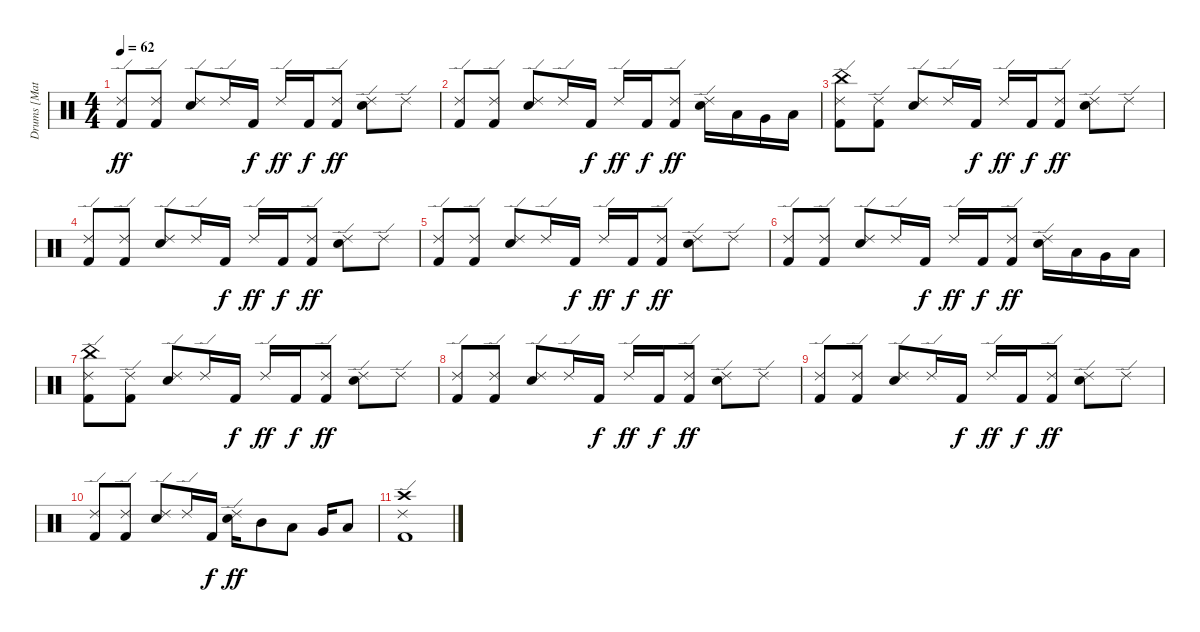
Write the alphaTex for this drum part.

\track ("Drums [Matt]" "Drums [Mat") {instrument percussion}
\staff {score}
\articulation defaults
\ts (4 4)
\tempo 62
\clef neutral
\ks c
("Ride (edge) 2" "Kick (hit) 2").8{dy ff} ("Ride (edge) 2" "Kick (hit) 2").8 ("Ride (edge) 2" "Snare (hit) 2").8 "Ride (edge) 2".16 "Kick (hit) 2".16{dy f} "Ride (edge) 2".16{dy ff} "Kick (hit) 2".16{dy f} ("Ride (edge) 2" "Kick (hit) 2").8{dy ff} ("Ride (edge) 2" "Snare (hit) 2").8 "Ride (edge) 2".8 |
("Ride (edge) 2" "Kick (hit) 2").8 ("Ride (edge) 2" "Kick (hit) 2").8 ("Ride (edge) 2" "Snare (hit) 2").8 "Ride (edge) 2".16 "Kick (hit) 2".16{dy f} "Ride (edge) 2".16{dy ff} "Kick (hit) 2".16{dy f} ("Ride (edge) 2" "Kick (hit) 2").8{dy ff} ("Ride (edge) 2" "Snare (hit) 2").16 "Low Tom (hit)".16 "Very Low Tom (hit)".16 "Low Floor Tom (hit)".16 |
("China (hit)" "Ride (edge) 2" "Kick (hit) 2").8 ("Ride (edge) 2" "Kick (hit) 2").8 ("Ride (edge) 2" "Snare (hit) 2").8 "Ride (edge) 2".16 "Kick (hit) 2".16{dy f} "Ride (edge) 2".16{dy ff} "Kick (hit) 2".16{dy f} ("Ride (edge) 2" "Kick (hit) 2").8{dy ff} ("Ride (edge) 2" "Snare (hit) 2").8 "Ride (edge) 2".8 |
("Ride (edge) 2" "Kick (hit) 2").8 ("Ride (edge) 2" "Kick (hit) 2").8 ("Ride (edge) 2" "Snare (hit) 2").8 "Ride (edge) 2".16 "Kick (hit) 2".16{dy f} "Ride (edge) 2".16{dy ff} "Kick (hit) 2".16{dy f} ("Ride (edge) 2" "Kick (hit) 2").8{dy ff} ("Ride (edge) 2" "Snare (hit) 2").8 "Ride (edge) 2".8 |
("Ride (edge) 2" "Kick (hit) 2").8 ("Ride (edge) 2" "Kick (hit) 2").8 ("Ride (edge) 2" "Snare (hit) 2").8 "Ride (edge) 2".16 "Kick (hit) 2".16{dy f} "Ride (edge) 2".16{dy ff} "Kick (hit) 2".16{dy f} ("Ride (edge) 2" "Kick (hit) 2").8{dy ff} ("Ride (edge) 2" "Snare (hit) 2").8 "Ride (edge) 2".8 |
("Ride (edge) 2" "Kick (hit) 2").8 ("Ride (edge) 2" "Kick (hit) 2").8 ("Ride (edge) 2" "Snare (hit) 2").8 "Ride (edge) 2".16 "Kick (hit) 2".16{dy f} "Ride (edge) 2".16{dy ff} "Kick (hit) 2".16{dy f} ("Ride (edge) 2" "Kick (hit) 2").8{dy ff} ("Ride (edge) 2" "Snare (hit) 2").16 "Low Tom (hit)".16 "Very Low Tom (hit)".16 "Low Floor Tom (hit)".16 |
("China (hit)" "Ride (edge) 2" "Kick (hit) 2").8 ("Ride (edge) 2" "Kick (hit) 2").8 ("Ride (edge) 2" "Snare (hit) 2").8 "Ride (edge) 2".16 "Kick (hit) 2".16{dy f} "Ride (edge) 2".16{dy ff} "Kick (hit) 2".16{dy f} ("Ride (edge) 2" "Kick (hit) 2").8{dy ff} ("Ride (edge) 2" "Snare (hit) 2").8 "Ride (edge) 2".8 |
("Ride (edge) 2" "Kick (hit) 2").8 ("Ride (edge) 2" "Kick (hit) 2").8 ("Ride (edge) 2" "Snare (hit) 2").8 "Ride (edge) 2".16 "Kick (hit) 2".16{dy f} "Ride (edge) 2".16{dy ff} "Kick (hit) 2".16{dy f} ("Ride (edge) 2" "Kick (hit) 2").8{dy ff} ("Ride (edge) 2" "Snare (hit) 2").8 "Ride (edge) 2".8 |
("Ride (edge) 2" "Kick (hit) 2").8 ("Ride (edge) 2" "Kick (hit) 2").8 ("Ride (edge) 2" "Snare (hit) 2").8 "Ride (edge) 2".16 "Kick (hit) 2".16{dy f} "Ride (edge) 2".16{dy ff} "Kick (hit) 2".16{dy f} ("Ride (edge) 2" "Kick (hit) 2").8{dy ff} ("Ride (edge) 2" "Snare (hit) 2").8 "Ride (edge) 2".8 |
("Ride (edge) 2" "Kick (hit) 2").8 ("Ride (edge) 2" "Kick (hit) 2").8 ("Ride (edge) 2" "Snare (hit) 2").8 "Ride (edge) 2".16 "Kick (hit) 2".16{dy f} ("Ride (edge) 2" "Snare (hit) 2").16{dy ff} "Mid Tom (hit)".8 "Low Tom (hit)".8 "Very Low Tom (hit)".16 "Low Floor Tom (hit)".8 |
("Crash high (hit)" "Ride (edge) 2" "Kick (hit) 2").1
